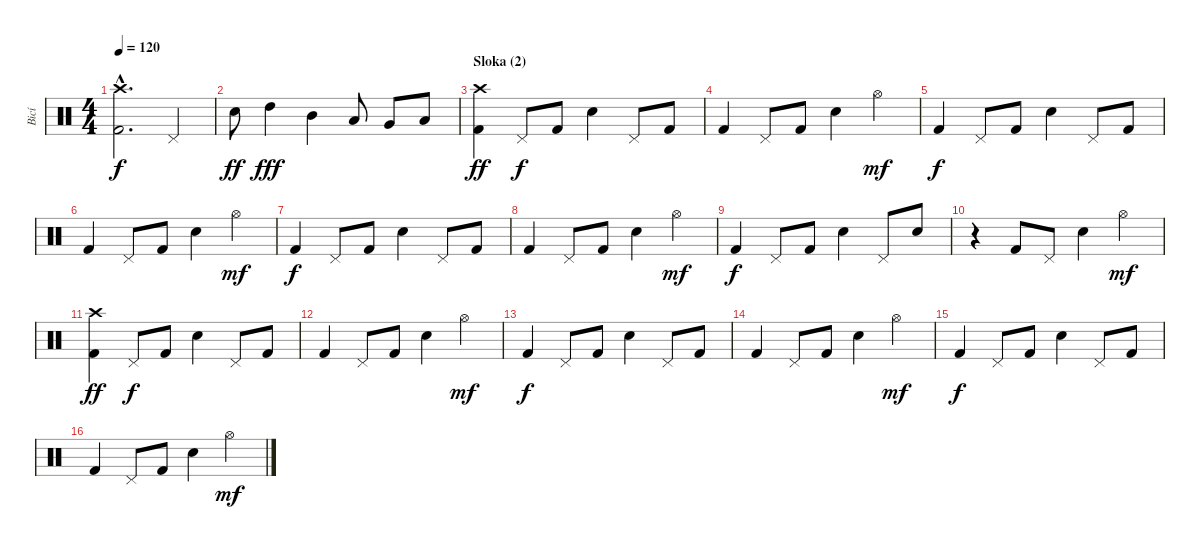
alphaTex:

\track ("Bicí" "Bicí") {instrument percussion}
\staff {score}
\articulation defaults
\ts (4 4)
\tempo 120
\clef neutral
\ks c
("Crash high (hit)"{hac} "Kick (hit) 2"{hac}).2{d dy f} "Pedal Hi-Hat (hit)".4 |
"Snare (hit) 2".8{dy ff} "High Tom (hit)".4{dy fff} "Mid Tom (hit)".4 "Low Tom (hit)".8 "Very Low Tom (hit)".8 "Low Floor Tom (hit)".8 |
\section ("" "Sloka (2)")
("Crash high (hit)" "Kick (hit) 2").4{dy ff} "Pedal Hi-Hat (hit)".8{dy f} "Kick (hit) 2".8 "Snare (hit) 2".4 "Pedal Hi-Hat (hit)".8 "Kick (hit) 2".8 |
"Kick (hit) 2".4 "Pedal Hi-Hat (hit)".8 "Kick (hit) 2".8 "Snare (hit) 2".4 "Hi-Hat (open)".4{dy mf} |
"Kick (hit) 2".4{dy f} "Pedal Hi-Hat (hit)".8 "Kick (hit) 2".8 "Snare (hit) 2".4 "Pedal Hi-Hat (hit)".8 "Kick (hit) 2".8 |
"Kick (hit) 2".4 "Pedal Hi-Hat (hit)".8 "Kick (hit) 2".8 "Snare (hit) 2".4 "Hi-Hat (open)".4{dy mf} |
"Kick (hit) 2".4{dy f} "Pedal Hi-Hat (hit)".8 "Kick (hit) 2".8 "Snare (hit) 2".4 "Pedal Hi-Hat (hit)".8 "Kick (hit) 2".8 |
"Kick (hit) 2".4 "Pedal Hi-Hat (hit)".8 "Kick (hit) 2".8 "Snare (hit) 2".4 "Hi-Hat (open)".4{dy mf} |
"Kick (hit) 2".4{dy f} "Pedal Hi-Hat (hit)".8 "Kick (hit) 2".8 "Snare (hit) 2".4 "Pedal Hi-Hat (hit)".8 "Snare (hit) 2".8 |
r.4 "Kick (hit) 2".8 "Pedal Hi-Hat (hit)".8 "Snare (hit) 2".4 "Hi-Hat (open)".4{dy mf} |
("Crash high (hit)" "Kick (hit) 2").4{dy ff} "Pedal Hi-Hat (hit)".8{dy f} "Kick (hit) 2".8 "Snare (hit) 2".4 "Pedal Hi-Hat (hit)".8 "Kick (hit) 2".8 |
"Kick (hit) 2".4 "Pedal Hi-Hat (hit)".8 "Kick (hit) 2".8 "Snare (hit) 2".4 "Hi-Hat (open)".4{dy mf} |
"Kick (hit) 2".4{dy f} "Pedal Hi-Hat (hit)".8 "Kick (hit) 2".8 "Snare (hit) 2".4 "Pedal Hi-Hat (hit)".8 "Kick (hit) 2".8 |
"Kick (hit) 2".4 "Pedal Hi-Hat (hit)".8 "Kick (hit) 2".8 "Snare (hit) 2".4 "Hi-Hat (open)".4{dy mf} |
"Kick (hit) 2".4{dy f} "Pedal Hi-Hat (hit)".8 "Kick (hit) 2".8 "Snare (hit) 2".4 "Pedal Hi-Hat (hit)".8 "Kick (hit) 2".8 |
"Kick (hit) 2".4 "Pedal Hi-Hat (hit)".8 "Kick (hit) 2".8 "Snare (hit) 2".4 "Hi-Hat (open)".4{dy mf}
